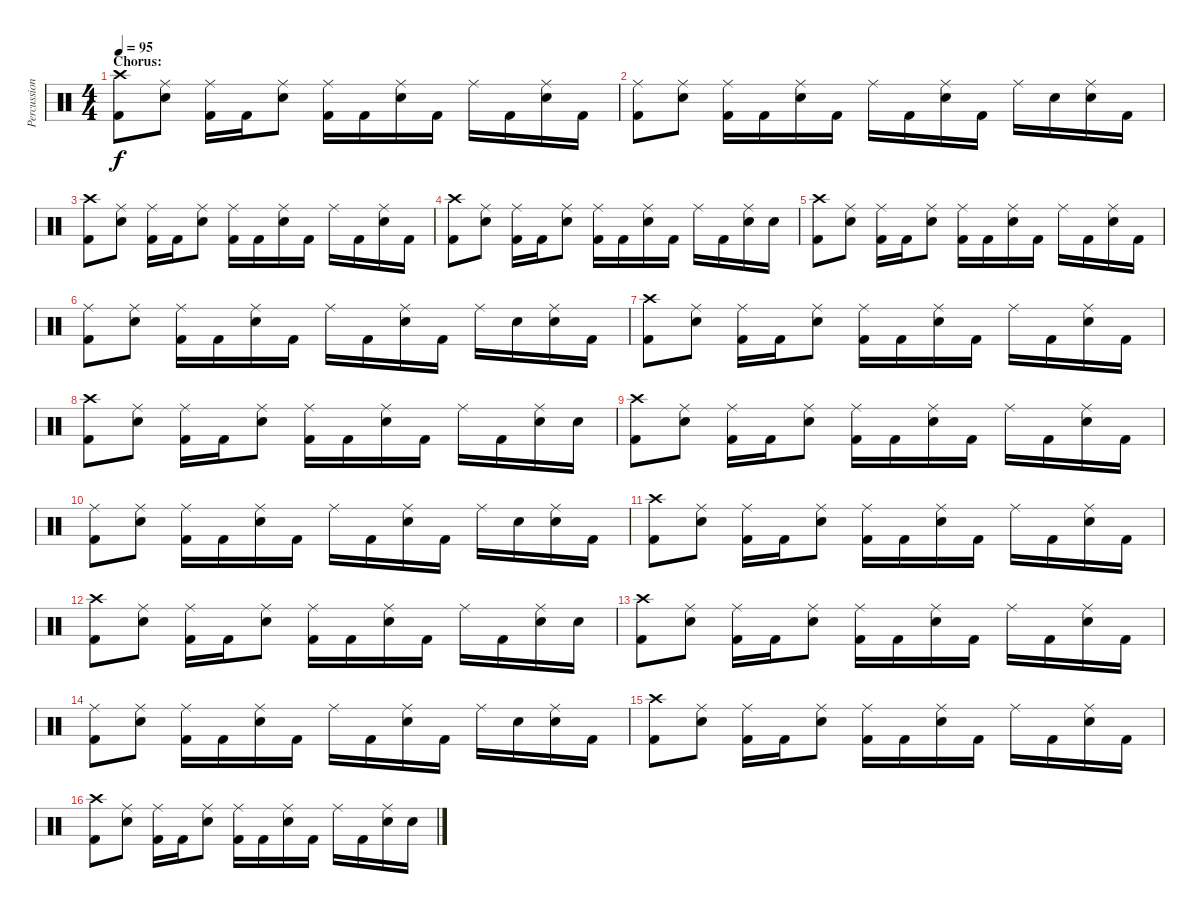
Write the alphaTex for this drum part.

\track ("Percussion" "Percussion") {instrument percussion}
\staff {score}
\articulation defaults
\ts (4 4)
\section ("" "Chorus:")
\tempo 95
\clef neutral
\ks c
("Crash high (hit)" "Kick (hit) 2").8{dy f} ("Ride (middle)" "Electric Snare (hit)").8 ("Ride (middle)" "Kick (hit) 2").16 "Kick (hit) 2".16 ("Ride (middle)" "Electric Snare (hit)").8 ("Ride (middle)" "Kick (hit) 2").16 "Kick (hit) 2".16 ("Ride (middle)" "Electric Snare (hit)").16 "Kick (hit) 2".16 "Ride (middle)".16 "Kick (hit) 2".16 ("Ride (middle)" "Electric Snare (hit)").16 "Kick (hit) 2".16 |
("Ride (middle)" "Kick (hit) 2").8 ("Ride (middle)" "Electric Snare (hit)").8 ("Ride (middle)" "Kick (hit) 2").16 "Kick (hit) 2".16 ("Ride (middle)" "Electric Snare (hit)").16 "Kick (hit) 2".16 "Ride (middle)".16 "Kick (hit) 2".16 ("Ride (middle)" "Electric Snare (hit)").16 "Kick (hit) 2".16 "Ride (middle)".16 "Electric Snare (hit)".16 ("Ride (middle)" "Electric Snare (hit)").16 "Kick (hit) 2".16 |
("Crash high (hit)" "Kick (hit) 2").8 ("Ride (middle)" "Electric Snare (hit)").8 ("Ride (middle)" "Kick (hit) 2").16 "Kick (hit) 2".16 ("Ride (middle)" "Electric Snare (hit)").8 ("Ride (middle)" "Kick (hit) 2").16 "Kick (hit) 2".16 ("Ride (middle)" "Electric Snare (hit)").16 "Kick (hit) 2".16 "Ride (middle)".16 "Kick (hit) 2".16 ("Ride (middle)" "Electric Snare (hit)").16 "Kick (hit) 2".16 |
("Crash high (hit)" "Kick (hit) 2").8 ("Ride (middle)" "Electric Snare (hit)").8 ("Ride (middle)" "Kick (hit) 2").16 "Kick (hit) 2".16 ("Ride (middle)" "Electric Snare (hit)").8 ("Ride (middle)" "Kick (hit) 2").16 "Kick (hit) 2".16 ("Ride (middle)" "Electric Snare (hit)").16 "Kick (hit) 2".16 "Ride (middle)".16 "Kick (hit) 2".16 ("Ride (middle)" "Electric Snare (hit)").16 "Electric Snare (hit)".16 |
("Crash high (hit)" "Kick (hit) 2").8 ("Ride (middle)" "Electric Snare (hit)").8 ("Ride (middle)" "Kick (hit) 2").16 "Kick (hit) 2".16 ("Ride (middle)" "Electric Snare (hit)").8 ("Ride (middle)" "Kick (hit) 2").16 "Kick (hit) 2".16 ("Ride (middle)" "Electric Snare (hit)").16 "Kick (hit) 2".16 "Ride (middle)".16 "Kick (hit) 2".16 ("Ride (middle)" "Electric Snare (hit)").16 "Kick (hit) 2".16 |
("Ride (middle)" "Kick (hit) 2").8 ("Ride (middle)" "Electric Snare (hit)").8 ("Ride (middle)" "Kick (hit) 2").16 "Kick (hit) 2".16 ("Ride (middle)" "Electric Snare (hit)").16 "Kick (hit) 2".16 "Ride (middle)".16 "Kick (hit) 2".16 ("Ride (middle)" "Electric Snare (hit)").16 "Kick (hit) 2".16 "Ride (middle)".16 "Electric Snare (hit)".16 ("Ride (middle)" "Electric Snare (hit)").16 "Kick (hit) 2".16 |
("Crash high (hit)" "Kick (hit) 2").8 ("Ride (middle)" "Electric Snare (hit)").8 ("Ride (middle)" "Kick (hit) 2").16 "Kick (hit) 2".16 ("Ride (middle)" "Electric Snare (hit)").8 ("Ride (middle)" "Kick (hit) 2").16 "Kick (hit) 2".16 ("Ride (middle)" "Electric Snare (hit)").16 "Kick (hit) 2".16 "Ride (middle)".16 "Kick (hit) 2".16 ("Ride (middle)" "Electric Snare (hit)").16 "Kick (hit) 2".16 |
("Crash high (hit)" "Kick (hit) 2").8 ("Ride (middle)" "Electric Snare (hit)").8 ("Ride (middle)" "Kick (hit) 2").16 "Kick (hit) 2".16 ("Ride (middle)" "Electric Snare (hit)").8 ("Ride (middle)" "Kick (hit) 2").16 "Kick (hit) 2".16 ("Ride (middle)" "Electric Snare (hit)").16 "Kick (hit) 2".16 "Ride (middle)".16 "Kick (hit) 2".16 ("Ride (middle)" "Electric Snare (hit)").16 "Electric Snare (hit)".16 |
("Crash high (hit)" "Kick (hit) 2").8 ("Ride (middle)" "Electric Snare (hit)").8 ("Ride (middle)" "Kick (hit) 2").16 "Kick (hit) 2".16 ("Ride (middle)" "Electric Snare (hit)").8 ("Ride (middle)" "Kick (hit) 2").16 "Kick (hit) 2".16 ("Ride (middle)" "Electric Snare (hit)").16 "Kick (hit) 2".16 "Ride (middle)".16 "Kick (hit) 2".16 ("Ride (middle)" "Electric Snare (hit)").16 "Kick (hit) 2".16 |
("Ride (middle)" "Kick (hit) 2").8 ("Ride (middle)" "Electric Snare (hit)").8 ("Ride (middle)" "Kick (hit) 2").16 "Kick (hit) 2".16 ("Ride (middle)" "Electric Snare (hit)").16 "Kick (hit) 2".16 "Ride (middle)".16 "Kick (hit) 2".16 ("Ride (middle)" "Electric Snare (hit)").16 "Kick (hit) 2".16 "Ride (middle)".16 "Electric Snare (hit)".16 ("Ride (middle)" "Electric Snare (hit)").16 "Kick (hit) 2".16 |
("Crash high (hit)" "Kick (hit) 2").8 ("Ride (middle)" "Electric Snare (hit)").8 ("Ride (middle)" "Kick (hit) 2").16 "Kick (hit) 2".16 ("Ride (middle)" "Electric Snare (hit)").8 ("Ride (middle)" "Kick (hit) 2").16 "Kick (hit) 2".16 ("Ride (middle)" "Electric Snare (hit)").16 "Kick (hit) 2".16 "Ride (middle)".16 "Kick (hit) 2".16 ("Ride (middle)" "Electric Snare (hit)").16 "Kick (hit) 2".16 |
("Crash high (hit)" "Kick (hit) 2").8 ("Ride (middle)" "Electric Snare (hit)").8 ("Ride (middle)" "Kick (hit) 2").16 "Kick (hit) 2".16 ("Ride (middle)" "Electric Snare (hit)").8 ("Ride (middle)" "Kick (hit) 2").16 "Kick (hit) 2".16 ("Ride (middle)" "Electric Snare (hit)").16 "Kick (hit) 2".16 "Ride (middle)".16 "Kick (hit) 2".16 ("Ride (middle)" "Electric Snare (hit)").16 "Electric Snare (hit)".16 |
("Crash high (hit)" "Kick (hit) 2").8 ("Ride (middle)" "Electric Snare (hit)").8 ("Ride (middle)" "Kick (hit) 2").16 "Kick (hit) 2".16 ("Ride (middle)" "Electric Snare (hit)").8 ("Ride (middle)" "Kick (hit) 2").16 "Kick (hit) 2".16 ("Ride (middle)" "Electric Snare (hit)").16 "Kick (hit) 2".16 "Ride (middle)".16 "Kick (hit) 2".16 ("Ride (middle)" "Electric Snare (hit)").16 "Kick (hit) 2".16 |
("Ride (middle)" "Kick (hit) 2").8 ("Ride (middle)" "Electric Snare (hit)").8 ("Ride (middle)" "Kick (hit) 2").16 "Kick (hit) 2".16 ("Ride (middle)" "Electric Snare (hit)").16 "Kick (hit) 2".16 "Ride (middle)".16 "Kick (hit) 2".16 ("Ride (middle)" "Electric Snare (hit)").16 "Kick (hit) 2".16 "Ride (middle)".16 "Electric Snare (hit)".16 ("Ride (middle)" "Electric Snare (hit)").16 "Kick (hit) 2".16 |
("Crash high (hit)" "Kick (hit) 2").8 ("Ride (middle)" "Electric Snare (hit)").8 ("Ride (middle)" "Kick (hit) 2").16 "Kick (hit) 2".16 ("Ride (middle)" "Electric Snare (hit)").8 ("Ride (middle)" "Kick (hit) 2").16 "Kick (hit) 2".16 ("Ride (middle)" "Electric Snare (hit)").16 "Kick (hit) 2".16 "Ride (middle)".16 "Kick (hit) 2".16 ("Ride (middle)" "Electric Snare (hit)").16 "Kick (hit) 2".16 |
("Crash high (hit)" "Kick (hit) 2").8 ("Ride (middle)" "Electric Snare (hit)").8 ("Ride (middle)" "Kick (hit) 2").16 "Kick (hit) 2".16 ("Ride (middle)" "Electric Snare (hit)").8 ("Ride (middle)" "Kick (hit) 2").16 "Kick (hit) 2".16 ("Ride (middle)" "Electric Snare (hit)").16 "Kick (hit) 2".16 "Ride (middle)".16 "Kick (hit) 2".16 ("Ride (middle)" "Electric Snare (hit)").16 "Electric Snare (hit)".16
